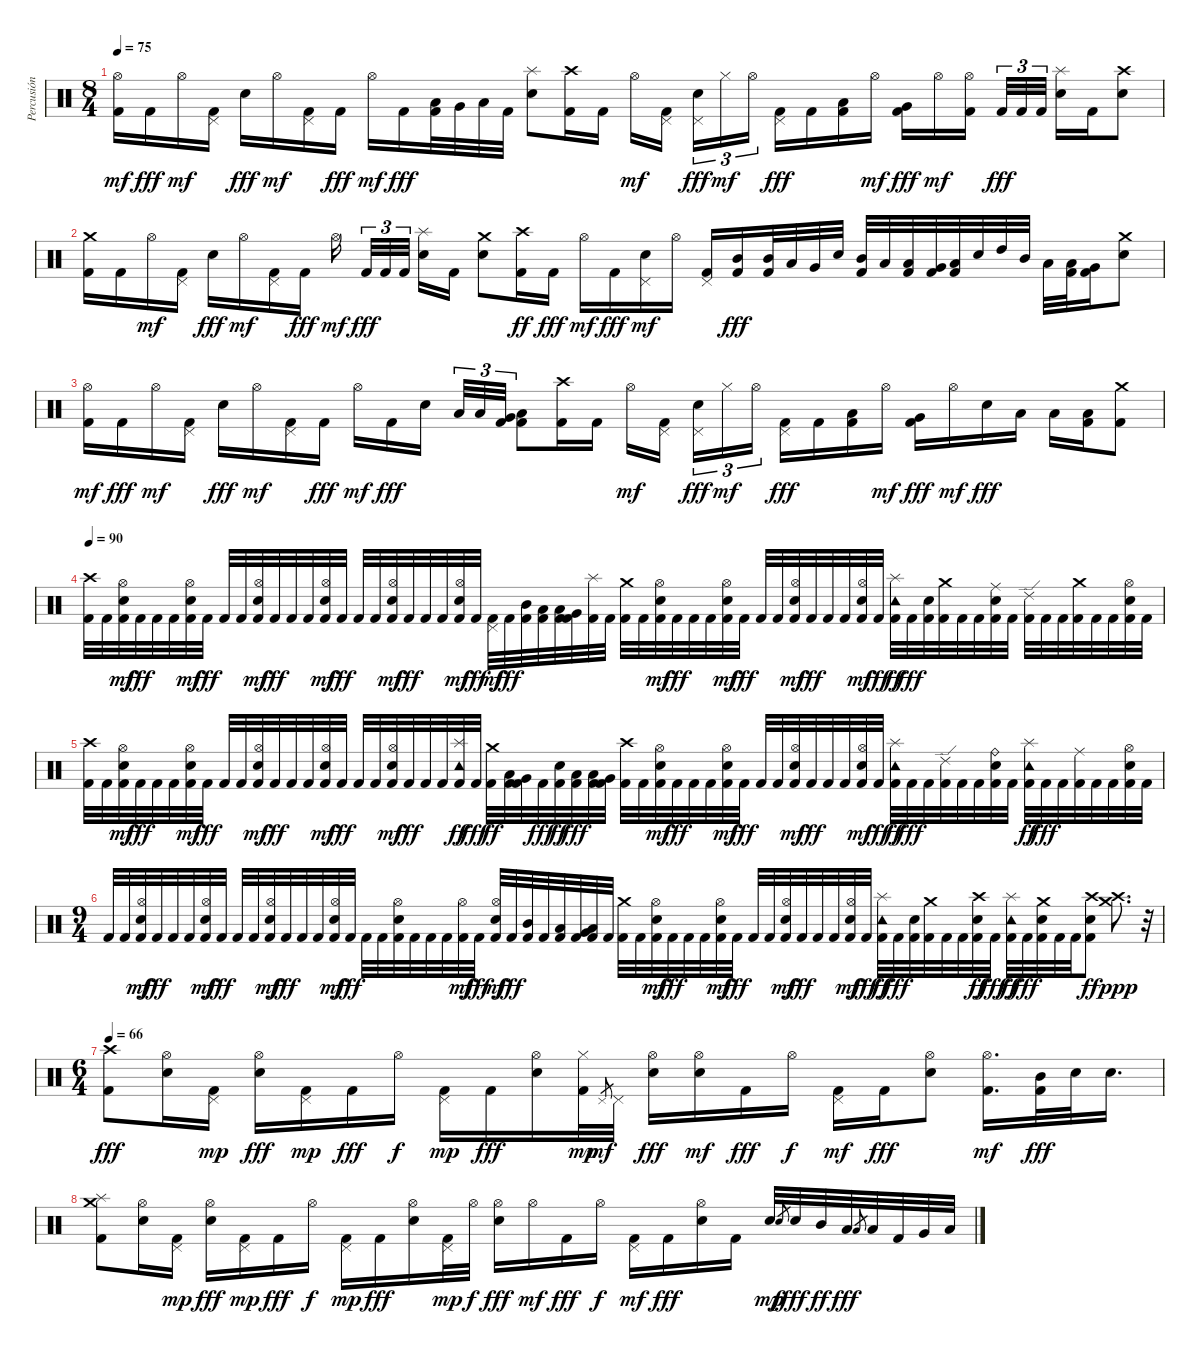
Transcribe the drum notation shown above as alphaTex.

\track ("Percusión" "Percusión") {instrument percussion}
\staff {score}
\articulation defaults
\ts (8 4)
\tempo 75
\clef neutral
\ks c
("Kick (hit) 2" "Hi-Hat (open)").16{dy mf} "Kick (hit) 2".16{dy fff} "Hi-Hat (open)".16{dy mf} ("Kick (hit) 2" "Pedal Hi-Hat (hit)").16 "Electric Snare (hit)".16{dy fff} "Hi-Hat (open)".16{dy mf} ("Kick (hit) 2" "Pedal Hi-Hat (hit)").16 "Kick (hit) 2".16{dy fff} "Hi-Hat (open)".16{dy mf} "Kick (hit) 2".16{dy fff} ("Kick (hit) 2" "Low Tom (hit)").32 "Very Low Tom (hit)".32 "Low Floor Tom (hit)".32 "Kick (hit) 2".32 ("Electric Snare (hit)" "Splash (hit)").8 ("Kick (hit) 2" "Crash high (hit)").16 "Kick (hit) 2".16 "Hi-Hat (open)".16{dy mf} ("Kick (hit) 2" "Pedal Hi-Hat (hit)").16{beam splitsecondary} ("Electric Snare (hit)" "Pedal Hi-Hat (hit)").16{tu (3 2) dy fff} "Hi-Hat (closed)".16{tu (3 2) dy mf} "Hi-Hat (open)".16{tu (3 2)} ("Kick (hit) 2" "Pedal Hi-Hat (hit)").16{dy fff} "Kick (hit) 2".16 ("Kick (hit) 2" "Low Tom (hit)").16 "Hi-Hat (open)".16{dy mf} ("Kick (hit) 2" "Very Low Tom (hit)").16{dy fff} "Hi-Hat (open)".16{dy mf} ("Kick (hit) 2" "Hi-Hat (open)").16{beam splitsecondary} "Kick (hit) 2".32{tu (3 2) dy fff} "Kick (hit) 2".32{tu (3 2)} "Kick (hit) 2".32{tu (3 2)} ("Electric Snare (hit)" "Splash (hit)").16 "Kick (hit) 2".16 ("Electric Snare (hit)" "Crash high (hit)").8 |
("Kick (hit) 2" "Crash medium (hit)").16 "Kick (hit) 2".16 "Hi-Hat (open)".16{dy mf} ("Kick (hit) 2" "Pedal Hi-Hat (hit)").16 "Electric Snare (hit)".16{dy fff} "Hi-Hat (open)".16{dy mf} ("Kick (hit) 2" "Pedal Hi-Hat (hit)").16 "Kick (hit) 2".16{dy fff} "Hi-Hat (open)".16{dy mf beam splitsecondary} "Kick (hit) 2".32{tu (3 2) dy fff} "Kick (hit) 2".32{tu (3 2)} "Kick (hit) 2".32{tu (3 2) beam splitsecondary} ("Electric Snare (hit)" "Splash (hit)").16 "Kick (hit) 2".16 ("Electric Snare (hit)" "Crash medium (hit)").8 ("Kick (hit) 2" "Crash high (hit)").16{dy ff} "Kick (hit) 2".16{dy fff} "Hi-Hat (open)".16{dy mf} "Kick (hit) 2".16{dy fff} ("Electric Snare (hit)" "Pedal Hi-Hat (hit)").16{dy mf} "Hi-Hat (open)".16 ("Kick (hit) 2" "Pedal Hi-Hat (hit)").16 ("Kick (hit) 2" "Mid Tom (hit)").16{dy fff} ("Kick (hit) 2" "Mid Tom (hit)").32 "Low Tom (hit)".32 "Very Low Tom (hit)".32 "Electric Snare (hit)".32 ("Kick (hit) 2" "Mid Tom (hit)").32 "Low Tom (hit)".32 ("Kick (hit) 2" "Low Tom (hit)").32 ("Kick (hit) 2" "Very Low Tom (hit)").32 ("Kick (hit) 2" "Low Floor Tom (hit)").32 "Electric Snare (hit)".32 "High Tom (hit)".32 "Mid Tom (hit)".32 "Low Tom (hit)".32 ("Kick (hit) 2" "Low Tom (hit)").32 ("Kick (hit) 2" "Very Low Tom (hit)").16 ("Electric Snare (hit)" "Crash medium (hit)").8 |
("Kick (hit) 2" "Hi-Hat (open)").16{dy mf} "Kick (hit) 2".16{dy fff} "Hi-Hat (open)".16{dy mf} ("Kick (hit) 2" "Pedal Hi-Hat (hit)").16 "Electric Snare (hit)".16{dy fff} "Hi-Hat (open)".16{dy mf} ("Kick (hit) 2" "Pedal Hi-Hat (hit)").16 "Kick (hit) 2".16{dy fff} "Hi-Hat (open)".16{dy mf} "Kick (hit) 2".16{dy fff} "Electric Snare (hit)".16{beam splitsecondary} "Low Tom (hit)".32{tu (3 2)} "Low Tom (hit)".32{tu (3 2)} ("Kick (hit) 2" "Very Low Tom (hit)").32{tu (3 2)} ("Kick (hit) 2" "Low Floor Tom (hit)").8 ("Kick (hit) 2" "Crash high (hit)").16 "Kick (hit) 2".16 "Hi-Hat (open)".16{dy mf} ("Kick (hit) 2" "Pedal Hi-Hat (hit)").16{beam splitsecondary} ("Electric Snare (hit)" "Pedal Hi-Hat (hit)").16{tu (3 2) dy fff} "Hi-Hat (closed)".16{tu (3 2) dy mf} "Hi-Hat (open)".16{tu (3 2)} ("Kick (hit) 2" "Pedal Hi-Hat (hit)").16{dy fff} "Kick (hit) 2".16 ("Kick (hit) 2" "Low Tom (hit)").16 "Hi-Hat (open)".16{dy mf} ("Kick (hit) 2" "Very Low Tom (hit)").16{dy fff} "Hi-Hat (open)".16{dy mf} "Electric Snare (hit)".16{dy fff} "Low Tom (hit)".16 "Low Tom (hit)".16 ("Kick (hit) 2" "Low Floor Tom (hit)").16 ("Kick (hit) 2" "Crash medium (hit)").8 |
\tempo 90
("Kick (hit) 2" "Crash high (hit)").32 "Kick (hit) 2".32 ("Kick (hit) 2" "Electric Snare (hit)" "Hi-Hat (open)").32{dy mf} "Kick (hit) 2".32{dy fff} "Kick (hit) 2".32 "Kick (hit) 2".32 ("Kick (hit) 2" "Electric Snare (hit)" "Hi-Hat (open)").32{dy mf} "Kick (hit) 2".32{dy fff} "Kick (hit) 2".32 "Kick (hit) 2".32 ("Kick (hit) 2" "Electric Snare (hit)" "Hi-Hat (open)").32{dy mf} "Kick (hit) 2".32{dy fff} "Kick (hit) 2".32 "Kick (hit) 2".32 ("Kick (hit) 2" "Electric Snare (hit)" "Hi-Hat (open)").32{dy mf} "Kick (hit) 2".32{dy fff} "Kick (hit) 2".32 "Kick (hit) 2".32 ("Kick (hit) 2" "Electric Snare (hit)" "Hi-Hat (open)").32{dy mf} "Kick (hit) 2".32{dy fff} "Kick (hit) 2".32 "Kick (hit) 2".32 ("Kick (hit) 2" "Electric Snare (hit)" "Hi-Hat (open)").32{dy mf} "Kick (hit) 2".32{dy fff} ("Kick (hit) 2" "Pedal Hi-Hat (hit)").32{dy mf} "Kick (hit) 2".32{dy fff} ("Kick (hit) 2" "Mid Tom (hit)").32 ("Kick (hit) 2" "Low Tom (hit)").32 ("Kick (hit) 2" "Low Tom (hit)").32 ("Kick (hit) 2" "Very Low Tom (hit)").32 ("Kick (hit) 2" "Splash (hit)").32 "Kick (hit) 2".32 ("Kick (hit) 2" "Crash medium (hit)").32 "Kick (hit) 2".32 ("Kick (hit) 2" "Electric Snare (hit)" "Hi-Hat (open)").32{dy mf} "Kick (hit) 2".32{dy fff} "Kick (hit) 2".32 "Kick (hit) 2".32 ("Kick (hit) 2" "Electric Snare (hit)" "Hi-Hat (open)").32{dy mf} "Kick (hit) 2".32{dy fff} "Kick (hit) 2".32 "Kick (hit) 2".32 ("Kick (hit) 2" "Electric Snare (hit)" "Hi-Hat (open)").32{dy mf} "Kick (hit) 2".32{dy fff} "Kick (hit) 2".32 "Kick (hit) 2".32 ("Kick (hit) 2" "Electric Snare (hit)" "Hi-Hat (open)").32{dy mf} "Kick (hit) 2".32{dy fff} ("Kick (hit) 2" "Splash (hit)" "Tambourine (hit)").32{dy ff} "Kick (hit) 2".32{dy fff} ("Kick (hit) 2" "Electric Snare (hit)").32 ("Kick (hit) 2" "Crash medium (hit)").32 "Kick (hit) 2".32 "Kick (hit) 2".32 ("Kick (hit) 2" "Electric Snare (hit)" "Ride (middle)").32 "Kick (hit) 2".32 ("Kick (hit) 2" "Ride (edge) 2").32 "Kick (hit) 2".32 "Kick (hit) 2".32 ("Kick (hit) 2" "Crash medium (hit)").32 "Kick (hit) 2".32 "Kick (hit) 2".32 ("Kick (hit) 2" "Electric Snare (hit)" "Hi-Hat (open)").32 "Kick (hit) 2".32 |
("Kick (hit) 2" "Crash high (hit)").32 "Kick (hit) 2".32 ("Kick (hit) 2" "Electric Snare (hit)" "Hi-Hat (open)").32{dy mf} "Kick (hit) 2".32{dy fff} "Kick (hit) 2".32 "Kick (hit) 2".32 ("Kick (hit) 2" "Electric Snare (hit)" "Hi-Hat (open)").32{dy mf} "Kick (hit) 2".32{dy fff} "Kick (hit) 2".32 "Kick (hit) 2".32 ("Kick (hit) 2" "Electric Snare (hit)" "Hi-Hat (open)").32{dy mf} "Kick (hit) 2".32{dy fff} "Kick (hit) 2".32 "Kick (hit) 2".32 ("Kick (hit) 2" "Electric Snare (hit)" "Hi-Hat (open)").32{dy mf} "Kick (hit) 2".32{dy fff} "Kick (hit) 2".32 "Kick (hit) 2".32 ("Kick (hit) 2" "Electric Snare (hit)" "Hi-Hat (open)").32{dy mf} "Kick (hit) 2".32{dy fff} "Kick (hit) 2".32 "Kick (hit) 2".32 ("Kick (hit) 2" "Splash (hit)" "Tambourine (hit)").32{dy ff} "Kick (hit) 2".32{dy fff} ("Kick (hit) 2" "Crash medium (hit)").32{dy ff} ("Kick (hit) 2" "Low Tom (hit)").32 ("Kick (hit) 2" "Very Low Tom (hit)").32 "Kick (hit) 2".32{dy fff} ("Kick (hit) 2" "Electric Snare (hit)").32{dy ff} ("Kick (hit) 2" "Low Tom (hit)").32{dy fff} ("Kick (hit) 2" "Low Tom (hit)").32 ("Kick (hit) 2" "Very Low Tom (hit)").32 ("Kick (hit) 2" "Crash high (hit)").32 "Kick (hit) 2".32 ("Kick (hit) 2" "Electric Snare (hit)" "Hi-Hat (open)").32{dy mf} "Kick (hit) 2".32{dy fff} "Kick (hit) 2".32 "Kick (hit) 2".32 ("Kick (hit) 2" "Electric Snare (hit)" "Hi-Hat (open)").32{dy mf} "Kick (hit) 2".32{dy fff} "Kick (hit) 2".32 "Kick (hit) 2".32 ("Kick (hit) 2" "Electric Snare (hit)" "Hi-Hat (open)").32{dy mf} "Kick (hit) 2".32{dy fff} "Kick (hit) 2".32 "Kick (hit) 2".32 ("Kick (hit) 2" "Electric Snare (hit)" "Hi-Hat (open)").32{dy mf} "Kick (hit) 2".32{dy fff} ("Kick (hit) 2" "Splash (hit)" "Tambourine (hit)").32{dy ff} "Kick (hit) 2".32{dy fff} "Kick (hit) 2".32 ("Kick (hit) 2" "Ride (edge) 2").32 "Kick (hit) 2".32 "Kick (hit) 2".32 ("Kick (hit) 2" "Electric Snare (hit)" "Ride (bell)").32 "Kick (hit) 2".32 ("Kick (hit) 2" "Splash (hit)" "Tambourine (hit)").32{dy ff} "Kick (hit) 2".32{dy fff} "Kick (hit) 2".32 ("Kick (hit) 2" "Ride (middle)").32 "Kick (hit) 2".32 "Kick (hit) 2".32 ("Kick (hit) 2" "Electric Snare (hit)" "Hi-Hat (open)").32 "Kick (hit) 2".32 |
\ts (9 4)
"Kick (hit) 2".32 "Kick (hit) 2".32 ("Kick (hit) 2" "Electric Snare (hit)" "Hi-Hat (open)").32{dy mf} "Kick (hit) 2".32{dy fff} "Kick (hit) 2".32 "Kick (hit) 2".32 ("Kick (hit) 2" "Electric Snare (hit)" "Hi-Hat (open)").32{dy mf} "Kick (hit) 2".32{dy fff} "Kick (hit) 2".32 "Kick (hit) 2".32 ("Kick (hit) 2" "Electric Snare (hit)" "Hi-Hat (open)").32{dy mf} "Kick (hit) 2".32{dy fff} "Kick (hit) 2".32 "Kick (hit) 2".32 ("Kick (hit) 2" "Electric Snare (hit)" "Hi-Hat (open)").32{dy mf} "Kick (hit) 2".32{dy fff} "Kick (hit) 2".32 "Kick (hit) 2".32 ("Kick (hit) 2" "Electric Snare (hit)" "Hi-Hat (open)").32 "Kick (hit) 2".32 "Kick (hit) 2".32 "Kick (hit) 2".32 ("Kick (hit) 2" "Hi-Hat (open)").32{dy mf} "Kick (hit) 2".32{dy fff} ("Kick (hit) 2" "Electric Snare (hit)" "Hi-Hat (open)").32{dy mf} "Kick (hit) 2".32{dy fff} ("Kick (hit) 2" "Mid Tom (hit)").32 "Kick (hit) 2".32 ("Kick (hit) 2" "Low Tom (hit)").32 ("Kick (hit) 2" "Very Low Tom (hit)").32 ("Kick (hit) 2" "Low Floor Tom (hit)").32 "Kick (hit) 2".32 ("Kick (hit) 2" "Crash medium (hit)").32 "Kick (hit) 2".32 ("Kick (hit) 2" "Electric Snare (hit)" "Hi-Hat (open)").32{dy mf} "Kick (hit) 2".32{dy fff} "Kick (hit) 2".32 "Kick (hit) 2".32 ("Kick (hit) 2" "Electric Snare (hit)" "Hi-Hat (open)").32{dy mf} "Kick (hit) 2".32{dy fff} "Kick (hit) 2".32 "Kick (hit) 2".32 ("Kick (hit) 2" "Electric Snare (hit)" "Hi-Hat (open)").32{dy mf} "Kick (hit) 2".32{dy fff} "Kick (hit) 2".32 "Kick (hit) 2".32 ("Kick (hit) 2" "Electric Snare (hit)" "Hi-Hat (open)").32{dy mf} "Kick (hit) 2".32{dy fff} ("Kick (hit) 2" "Splash (hit)" "Tambourine (hit)").32{dy ff} "Kick (hit) 2".32{dy fff} ("Kick (hit) 2" "Electric Snare (hit)").32 ("Kick (hit) 2" "Crash medium (hit)").32 "Kick (hit) 2".32 "Kick (hit) 2".32 ("Kick (hit) 2" "Electric Snare (hit)" "Crash high (hit)").32{dy ff} "Kick (hit) 2".32{dy fff} ("Kick (hit) 2" "Splash (hit)" "Tambourine (hit)").32{dy ff} "Kick (hit) 2".32{dy fff} ("Kick (hit) 2" "Electric Snare (hit)" "Crash medium (hit)").32 "Kick (hit) 2".32 "Kick (hit) 2".32 ("Kick (hit) 2" "Electric Snare (hit)" "Crash high (hit)").8{dy ff} ("Crash high (hit)" "Crash medium (hit)").8{d dy ppp} r.32 |
\ts (6 4)
\tempo 66
("Kick (hit) 2" "Crash high (hit)").8{dy fff} ("Electric Snare (hit)" "Hi-Hat (open)").16 ("Kick (hit) 2" "Pedal Hi-Hat (hit)").16{dy mp} ("Electric Snare (hit)" "Hi-Hat (open)").16{dy fff} ("Kick (hit) 2" "Pedal Hi-Hat (hit)").16{dy mp} "Kick (hit) 2".16{dy fff} "Hi-Hat (open)".16{dy f} ("Kick (hit) 2" "Pedal Hi-Hat (hit)").16{dy mp} "Kick (hit) 2".16{dy fff} ("Electric Snare (hit)" "Hi-Hat (open)").16 ("Kick (hit) 2" "Hi-Hat (closed)").32{dy mp} "Pedal Hi-Hat (hit)".8{gr dy mf} "Pedal Hi-Hat (hit)".32 ("Electric Snare (hit)" "Hi-Hat (open)").16{dy fff} ("Electric Snare (hit)" "Hi-Hat (open)").16{dy mf} "Kick (hit) 2".16{dy fff} "Hi-Hat (open)".16{dy f} ("Kick (hit) 2" "Pedal Hi-Hat (hit)").16{dy mf} "Kick (hit) 2".16{dy fff} ("Electric Snare (hit)" "Hi-Hat (open)").8 ("Kick (hit) 2" "Hi-Hat (open)").16{d dy mf} ("Kick (hit) 2" "Mid Tom (hit)").32{dy fff} "Electric Snare (hit)".32 "Electric Snare (hit)".16{d} |
("Kick (hit) 2" "Crash medium (hit)" "Splash (hit)").8 ("Electric Snare (hit)" "Hi-Hat (open)").16 ("Kick (hit) 2" "Pedal Hi-Hat (hit)").16{dy mp} ("Electric Snare (hit)" "Hi-Hat (open)").16{dy fff} ("Kick (hit) 2" "Pedal Hi-Hat (hit)").16{dy mp} "Kick (hit) 2".16{dy fff} "Hi-Hat (open)".16{dy f} ("Kick (hit) 2" "Pedal Hi-Hat (hit)").16{dy mp} "Kick (hit) 2".16{dy fff} ("Electric Snare (hit)" "Hi-Hat (open)").16 ("Kick (hit) 2" "Pedal Hi-Hat (hit)").32{dy mp} "Hi-Hat (open)".32{dy f} ("Electric Snare (hit)" "Hi-Hat (open)").16{dy fff} "Hi-Hat (open)".16{dy mf} "Kick (hit) 2".16{dy fff} "Hi-Hat (open)".16{dy f} ("Kick (hit) 2" "Pedal Hi-Hat (hit)").16{dy mf} "Kick (hit) 2".16{dy fff} ("Electric Snare (hit)" "Hi-Hat (open)").16 "Kick (hit) 2".16 "Electric Snare (hit)".32{dy mp} "Electric Snare (hit)".8{gr dy f} "Electric Snare (hit)".32{dy fff} "Mid Tom (hit)".32{dy ff} "Low Tom (hit)".32{dy fff} "Low Tom (hit)".8{gr} "Low Tom (hit)".32 "Kick (hit) 2".32 "Very Low Tom (hit)".32 "Low Floor Tom (hit)".32
